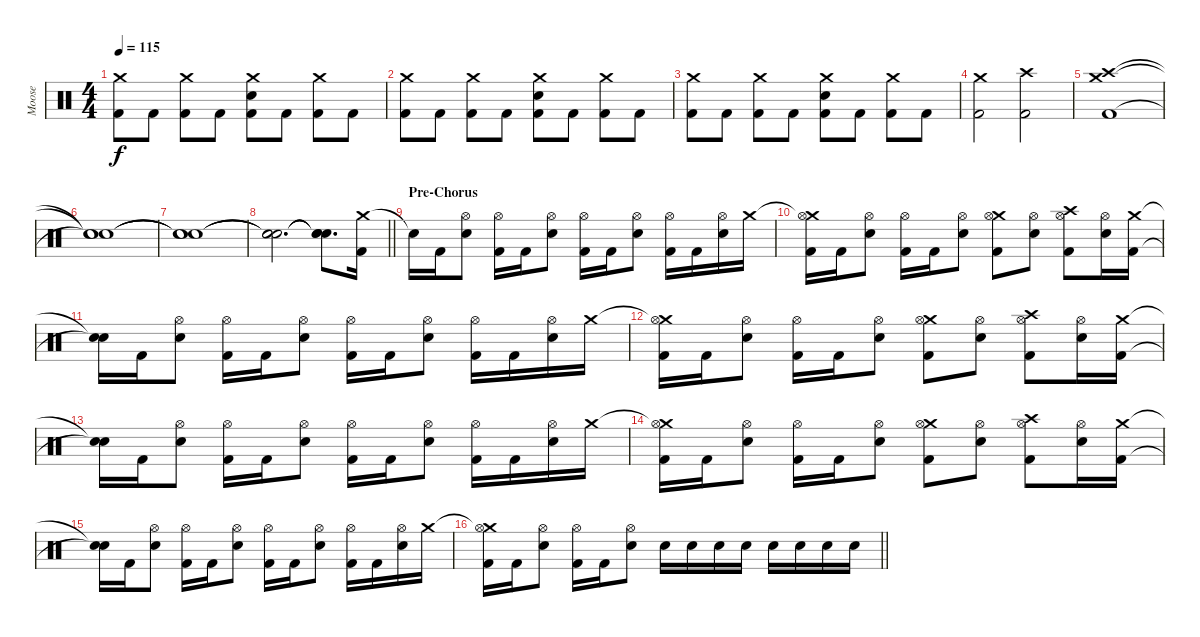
\track ("Moose" "Moose") {instrument percussion}
\staff {score}
\articulation defaults
\ts (4 4)
\tempo 115
\clef neutral
\ks c
("Crash medium (hit)" "Kick (hit) 2").8{dy f} "Kick (hit) 2".8 ("Crash medium (hit)" "Kick (hit) 2").8 "Kick (hit) 2".8 ("Crash medium (hit)" "Electric Snare (hit)" "Kick (hit) 2").8 "Kick (hit) 2".8 ("Crash medium (hit)" "Kick (hit) 2").8 "Kick (hit) 2".8 |
("Crash medium (hit)" "Kick (hit) 2").8 "Kick (hit) 2".8 ("Crash medium (hit)" "Kick (hit) 2").8 "Kick (hit) 2".8 ("Crash medium (hit)" "Electric Snare (hit)" "Kick (hit) 2").8 "Kick (hit) 2".8 ("Crash medium (hit)" "Kick (hit) 2").8 "Kick (hit) 2".8 |
("Crash medium (hit)" "Kick (hit) 2").8 "Kick (hit) 2".8 ("Crash medium (hit)" "Kick (hit) 2").8 "Kick (hit) 2".8 ("Crash medium (hit)" "Electric Snare (hit)" "Kick (hit) 2").8 "Kick (hit) 2".8 ("Crash medium (hit)" "Kick (hit) 2").8 "Kick (hit) 2".8 |
("Crash medium (hit)" "Kick (hit) 2").2 ("Crash high (hit)" "Kick (hit) 2").2 |
("Crash medium (hit)" "Crash high (hit)" "Kick (hit) 2").1 |
("Snare (hit)"{t} "Snare (hit)"{t} "Snare (hit)"{t}).1 |
("Snare (hit)"{t} "Snare (hit)"{t} "Snare (hit)"{t}).1 |
\barLineRight lightlight
("Snare (hit)"{t} "Snare (hit)"{t} "Snare (hit)"{t}).2{d} ("Snare (hit)"{t} "Snare (hit)"{t} "Snare (hit)"{t}).8{d} ("Crash medium (hit)" "Kick (hit) 2").16 |
\section ("" "Pre-Chorus")
"Snare (hit)"{t}.16 "Kick (hit) 2".16 ("Hi-Hat (open)" "Electric Snare (hit)").8 ("Hi-Hat (open)" "Kick (hit) 2").16 "Kick (hit) 2".16 ("Hi-Hat (open)" "Electric Snare (hit)").8 ("Hi-Hat (open)" "Kick (hit) 2").16 "Kick (hit) 2".16 ("Hi-Hat (open)" "Electric Snare (hit)").8 ("Hi-Hat (open)" "Kick (hit) 2").16 "Kick (hit) 2".16 ("Hi-Hat (open)" "Electric Snare (hit)").16 "Crash medium (hit)".16 |
("Crash medium (hit)"{t} "Hi-Hat (open)" "Kick (hit) 2").16 "Kick (hit) 2".16 ("Hi-Hat (open)" "Electric Snare (hit)").8 ("Hi-Hat (open)" "Kick (hit) 2").16 "Kick (hit) 2".16 ("Hi-Hat (open)" "Electric Snare (hit)").8 ("Crash medium (hit)" "Hi-Hat (open)" "Kick (hit) 2").8 ("Hi-Hat (open)" "Electric Snare (hit)").8 ("Crash high (hit)" "Hi-Hat (open)" "Kick (hit) 2").8 ("Hi-Hat (open)" "Electric Snare (hit)").16 ("Crash medium (hit)" "Kick (hit) 2").16 |
("Snare (hit)"{t} "Snare (hit)"{t}).16 "Kick (hit) 2".16 ("Hi-Hat (open)" "Electric Snare (hit)").8 ("Hi-Hat (open)" "Kick (hit) 2").16 "Kick (hit) 2".16 ("Hi-Hat (open)" "Electric Snare (hit)").8 ("Hi-Hat (open)" "Kick (hit) 2").16 "Kick (hit) 2".16 ("Hi-Hat (open)" "Electric Snare (hit)").8 ("Hi-Hat (open)" "Kick (hit) 2").16 "Kick (hit) 2".16 ("Hi-Hat (open)" "Electric Snare (hit)").16 "Crash medium (hit)".16 |
("Crash medium (hit)"{t} "Hi-Hat (open)" "Kick (hit) 2").16 "Kick (hit) 2".16 ("Hi-Hat (open)" "Electric Snare (hit)").8 ("Hi-Hat (open)" "Kick (hit) 2").16 "Kick (hit) 2".16 ("Hi-Hat (open)" "Electric Snare (hit)").8 ("Crash medium (hit)" "Hi-Hat (open)" "Kick (hit) 2").8 ("Hi-Hat (open)" "Electric Snare (hit)").8 ("Crash high (hit)" "Hi-Hat (open)" "Kick (hit) 2").8 ("Hi-Hat (open)" "Electric Snare (hit)").16 ("Crash medium (hit)" "Kick (hit) 2").16 |
("Snare (hit)"{t} "Snare (hit)"{t}).16 "Kick (hit) 2".16 ("Hi-Hat (open)" "Electric Snare (hit)").8 ("Hi-Hat (open)" "Kick (hit) 2").16 "Kick (hit) 2".16 ("Hi-Hat (open)" "Electric Snare (hit)").8 ("Hi-Hat (open)" "Kick (hit) 2").16 "Kick (hit) 2".16 ("Hi-Hat (open)" "Electric Snare (hit)").8 ("Hi-Hat (open)" "Kick (hit) 2").16 "Kick (hit) 2".16 ("Hi-Hat (open)" "Electric Snare (hit)").16 "Crash medium (hit)".16 |
("Crash medium (hit)"{t} "Hi-Hat (open)" "Kick (hit) 2").16 "Kick (hit) 2".16 ("Hi-Hat (open)" "Electric Snare (hit)").8 ("Hi-Hat (open)" "Kick (hit) 2").16 "Kick (hit) 2".16 ("Hi-Hat (open)" "Electric Snare (hit)").8 ("Crash medium (hit)" "Hi-Hat (open)" "Kick (hit) 2").8 ("Hi-Hat (open)" "Electric Snare (hit)").8 ("Crash high (hit)" "Hi-Hat (open)" "Kick (hit) 2").8 ("Hi-Hat (open)" "Electric Snare (hit)").16 ("Crash medium (hit)" "Kick (hit) 2").16 |
("Snare (hit)"{t} "Snare (hit)"{t}).16 "Kick (hit) 2".16 ("Hi-Hat (open)" "Electric Snare (hit)").8 ("Hi-Hat (open)" "Kick (hit) 2").16 "Kick (hit) 2".16 ("Hi-Hat (open)" "Electric Snare (hit)").8 ("Hi-Hat (open)" "Kick (hit) 2").16 "Kick (hit) 2".16 ("Hi-Hat (open)" "Electric Snare (hit)").8 ("Hi-Hat (open)" "Kick (hit) 2").16 "Kick (hit) 2".16 ("Hi-Hat (open)" "Electric Snare (hit)").16 "Crash medium (hit)".16 |
\barLineRight lightlight
("Crash medium (hit)"{t} "Hi-Hat (open)" "Kick (hit) 2").16 "Kick (hit) 2".16 ("Hi-Hat (open)" "Electric Snare (hit)").8 ("Hi-Hat (open)" "Kick (hit) 2").16 "Kick (hit) 2".16 ("Hi-Hat (open)" "Electric Snare (hit)").8 "Electric Snare (hit)".16 "Electric Snare (hit)".16 "Electric Snare (hit)".16 "Electric Snare (hit)".16 "Electric Snare (hit)".16 "Electric Snare (hit)".16 "Electric Snare (hit)".16 "Electric Snare (hit)".16
